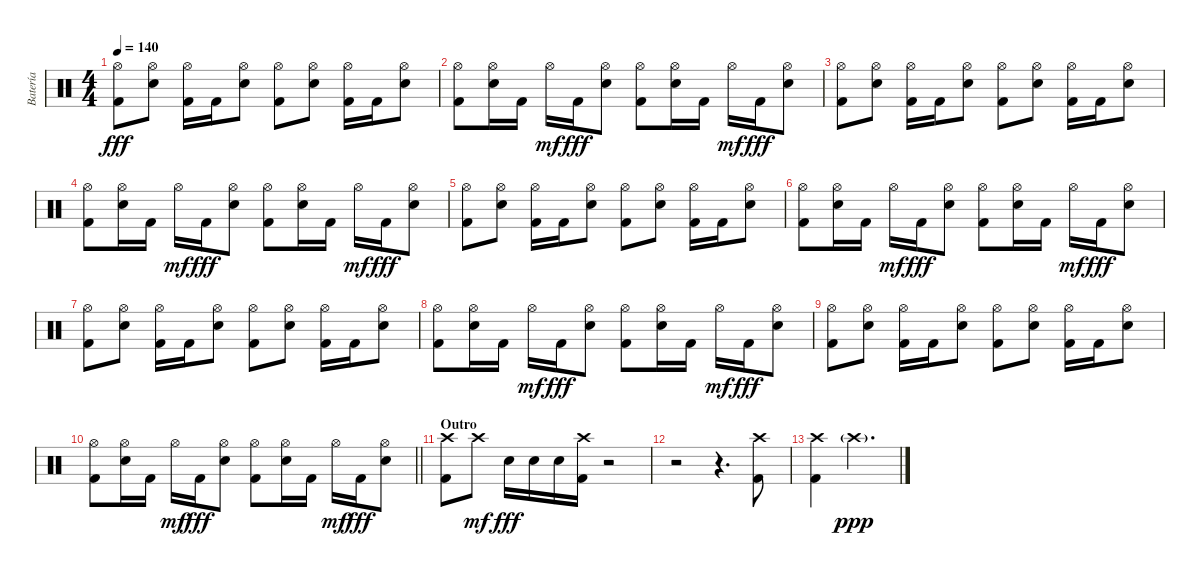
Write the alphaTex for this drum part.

\track ("Batería" "Batería") {instrument percussion}
\staff {score}
\articulation defaults
\ts (4 4)
\tempo 140
\clef neutral
\ks c
("Hi-Hat (open)" "Kick (hit) 2").8{dy fff} ("Hi-Hat (open)" "Electric Snare (hit)").8 ("Hi-Hat (open)" "Kick (hit) 2").16 "Kick (hit) 2".16 ("Hi-Hat (open)" "Electric Snare (hit)").8 ("Hi-Hat (open)" "Kick (hit) 2").8 ("Hi-Hat (open)" "Electric Snare (hit)").8 ("Hi-Hat (open)" "Kick (hit) 2").16 "Kick (hit) 2".16 ("Hi-Hat (open)" "Electric Snare (hit)").8 |
("Hi-Hat (open)" "Kick (hit) 2").8 ("Hi-Hat (open)" "Electric Snare (hit)").16 "Kick (hit) 2".16 "Hi-Hat (open)".16{dy mf} "Kick (hit) 2".16{dy fff} ("Hi-Hat (open)" "Electric Snare (hit)").8 ("Hi-Hat (open)" "Kick (hit) 2").8 ("Hi-Hat (open)" "Electric Snare (hit)").16 "Kick (hit) 2".16 "Hi-Hat (open)".16{dy mf} "Kick (hit) 2".16{dy fff} ("Hi-Hat (open)" "Electric Snare (hit)").8 |
("Hi-Hat (open)" "Kick (hit) 2").8 ("Hi-Hat (open)" "Electric Snare (hit)").8 ("Hi-Hat (open)" "Kick (hit) 2").16 "Kick (hit) 2".16 ("Hi-Hat (open)" "Electric Snare (hit)").8 ("Hi-Hat (open)" "Kick (hit) 2").8 ("Hi-Hat (open)" "Electric Snare (hit)").8 ("Hi-Hat (open)" "Kick (hit) 2").16 "Kick (hit) 2".16 ("Hi-Hat (open)" "Electric Snare (hit)").8 |
("Hi-Hat (open)" "Kick (hit) 2").8 ("Hi-Hat (open)" "Electric Snare (hit)").16 "Kick (hit) 2".16 "Hi-Hat (open)".16{dy mf} "Kick (hit) 2".16{dy fff} ("Hi-Hat (open)" "Electric Snare (hit)").8 ("Hi-Hat (open)" "Kick (hit) 2").8 ("Hi-Hat (open)" "Electric Snare (hit)").16 "Kick (hit) 2".16 "Hi-Hat (open)".16{dy mf} "Kick (hit) 2".16{dy fff} ("Hi-Hat (open)" "Electric Snare (hit)").8 |
("Hi-Hat (open)" "Kick (hit) 2").8 ("Hi-Hat (open)" "Electric Snare (hit)").8 ("Hi-Hat (open)" "Kick (hit) 2").16 "Kick (hit) 2".16 ("Hi-Hat (open)" "Electric Snare (hit)").8 ("Hi-Hat (open)" "Kick (hit) 2").8 ("Hi-Hat (open)" "Electric Snare (hit)").8 ("Hi-Hat (open)" "Kick (hit) 2").16 "Kick (hit) 2".16 ("Hi-Hat (open)" "Electric Snare (hit)").8 |
("Hi-Hat (open)" "Kick (hit) 2").8 ("Hi-Hat (open)" "Electric Snare (hit)").16 "Kick (hit) 2".16 "Hi-Hat (open)".16{dy mf} "Kick (hit) 2".16{dy fff} ("Hi-Hat (open)" "Electric Snare (hit)").8 ("Hi-Hat (open)" "Kick (hit) 2").8 ("Hi-Hat (open)" "Electric Snare (hit)").16 "Kick (hit) 2".16 "Hi-Hat (open)".16{dy mf} "Kick (hit) 2".16{dy fff} ("Hi-Hat (open)" "Electric Snare (hit)").8 |
("Hi-Hat (open)" "Kick (hit) 2").8 ("Hi-Hat (open)" "Electric Snare (hit)").8 ("Hi-Hat (open)" "Kick (hit) 2").16 "Kick (hit) 2".16 ("Hi-Hat (open)" "Electric Snare (hit)").8 ("Hi-Hat (open)" "Kick (hit) 2").8 ("Hi-Hat (open)" "Electric Snare (hit)").8 ("Hi-Hat (open)" "Kick (hit) 2").16 "Kick (hit) 2".16 ("Hi-Hat (open)" "Electric Snare (hit)").8 |
("Hi-Hat (open)" "Kick (hit) 2").8 ("Hi-Hat (open)" "Electric Snare (hit)").16 "Kick (hit) 2".16 "Hi-Hat (open)".16{dy mf} "Kick (hit) 2".16{dy fff} ("Hi-Hat (open)" "Electric Snare (hit)").8 ("Hi-Hat (open)" "Kick (hit) 2").8 ("Hi-Hat (open)" "Electric Snare (hit)").16 "Kick (hit) 2".16 "Hi-Hat (open)".16{dy mf} "Kick (hit) 2".16{dy fff} ("Hi-Hat (open)" "Electric Snare (hit)").8 |
("Hi-Hat (open)" "Kick (hit) 2").8 ("Hi-Hat (open)" "Electric Snare (hit)").8 ("Hi-Hat (open)" "Kick (hit) 2").16 "Kick (hit) 2".16 ("Hi-Hat (open)" "Electric Snare (hit)").8 ("Hi-Hat (open)" "Kick (hit) 2").8 ("Hi-Hat (open)" "Electric Snare (hit)").8 ("Hi-Hat (open)" "Kick (hit) 2").16 "Kick (hit) 2".16 ("Hi-Hat (open)" "Electric Snare (hit)").8 |
\barLineRight lightlight
("Hi-Hat (open)" "Kick (hit) 2").8 ("Hi-Hat (open)" "Electric Snare (hit)").16 "Kick (hit) 2".16 "Hi-Hat (open)".16{dy mf} "Kick (hit) 2".16{dy fff} ("Hi-Hat (open)" "Electric Snare (hit)").8 ("Hi-Hat (open)" "Kick (hit) 2").8 ("Hi-Hat (open)" "Electric Snare (hit)").16 "Kick (hit) 2".16 "Hi-Hat (open)".16{dy mf} "Kick (hit) 2".16{dy fff} ("Hi-Hat (open)" "Electric Snare (hit)").8 |
\section ("" "Outro")
("Crash high (hit)" "Kick (hit) 2").8 "Crash high (hit)".8{dy mf} "Electric Snare (hit)".16{dy fff} "Electric Snare (hit)".16 "Electric Snare (hit)".16 ("Crash high (hit)" "Kick (hit) 2").16 r.2 |
r.2 r.4{d} ("Crash high (hit)" "Kick (hit) 2").8 |
("Crash high (hit)" "Kick (hit) 2").4 "Crash high (hit)"{g}.2{d dy ppp}
